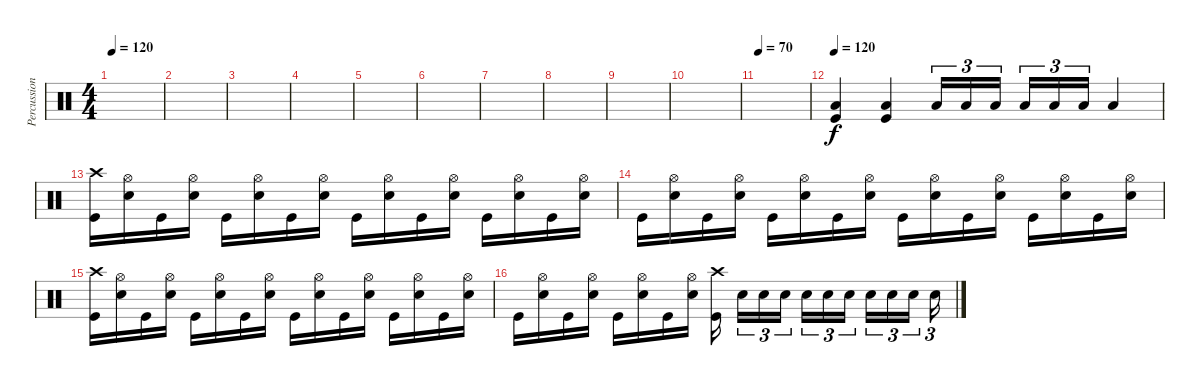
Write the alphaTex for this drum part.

\track ("Percussion" "Percussion") {instrument percussion}
\staff {score}
\articulation defaults
\ts (4 4)
\tempo 120
\clef neutral
\ks c
|
|
|
|
|
|
|
|
|
|
\tempo 70
|
\tempo 120
("Kick (hit)" "Low Tom (hit)").4 ("Kick (hit)" "Low Tom (hit)").4 "Low Tom (hit)".16{tu (3 2)} "Low Tom (hit)".16{tu (3 2)} "Low Tom (hit)".16{tu (3 2)} "Low Tom (hit)".16{tu (3 2)} "Low Tom (hit)".16{tu (3 2)} "Low Tom (hit)".16{tu (3 2)} "Low Tom (hit)".4 |
("Kick (hit)" "Crash high (hit)").16 ("Electric Snare (hit)" "Hi-Hat (open)").16 "Kick (hit)".16 ("Electric Snare (hit)" "Hi-Hat (open)").16 "Kick (hit)".16 ("Electric Snare (hit)" "Hi-Hat (open)").16 "Kick (hit)".16 ("Electric Snare (hit)" "Hi-Hat (open)").16 "Kick (hit)".16 ("Electric Snare (hit)" "Hi-Hat (open)").16 "Kick (hit)".16 ("Electric Snare (hit)" "Hi-Hat (open)").16 "Kick (hit)".16 ("Electric Snare (hit)" "Hi-Hat (open)").16 "Kick (hit)".16 ("Electric Snare (hit)" "Hi-Hat (open)").16 |
"Kick (hit)".16 ("Electric Snare (hit)" "Hi-Hat (open)").16 "Kick (hit)".16 ("Electric Snare (hit)" "Hi-Hat (open)").16 "Kick (hit)".16 ("Electric Snare (hit)" "Hi-Hat (open)").16 "Kick (hit)".16 ("Electric Snare (hit)" "Hi-Hat (open)").16 "Kick (hit)".16 ("Electric Snare (hit)" "Hi-Hat (open)").16 "Kick (hit)".16 ("Electric Snare (hit)" "Hi-Hat (open)").16 "Kick (hit)".16 ("Electric Snare (hit)" "Hi-Hat (open)").16 "Kick (hit)".16 ("Electric Snare (hit)" "Hi-Hat (open)").16 |
("Kick (hit)" "Crash high (hit)").16 ("Electric Snare (hit)" "Hi-Hat (open)").16 "Kick (hit)".16 ("Electric Snare (hit)" "Hi-Hat (open)").16 "Kick (hit)".16 ("Electric Snare (hit)" "Hi-Hat (open)").16 "Kick (hit)".16 ("Electric Snare (hit)" "Hi-Hat (open)").16 "Kick (hit)".16 ("Electric Snare (hit)" "Hi-Hat (open)").16 "Kick (hit)".16 ("Electric Snare (hit)" "Hi-Hat (open)").16 "Kick (hit)".16 ("Electric Snare (hit)" "Hi-Hat (open)").16 "Kick (hit)".16 ("Electric Snare (hit)" "Hi-Hat (open)").16 |
"Kick (hit)".16 ("Electric Snare (hit)" "Hi-Hat (open)").16 "Kick (hit)".16 ("Electric Snare (hit)" "Hi-Hat (open)").16 "Kick (hit)".16 ("Electric Snare (hit)" "Hi-Hat (open)").16 "Kick (hit)".16 ("Electric Snare (hit)" "Hi-Hat (open)").16 ("Kick (hit)" "Crash high (hit)").16 "Electric Snare (hit)".16{tu (3 2)} "Electric Snare (hit)".16{tu (3 2)} "Electric Snare (hit)".16{tu (3 2)} "Electric Snare (hit)".16{tu (3 2)} "Electric Snare (hit)".16{tu (3 2)} "Electric Snare (hit)".16{tu (3 2)} "Electric Snare (hit)".16{tu (3 2)} "Electric Snare (hit)".16{tu (3 2)} "Electric Snare (hit)".16{tu (3 2)} "Electric Snare (hit)".16{tu (3 2)}
